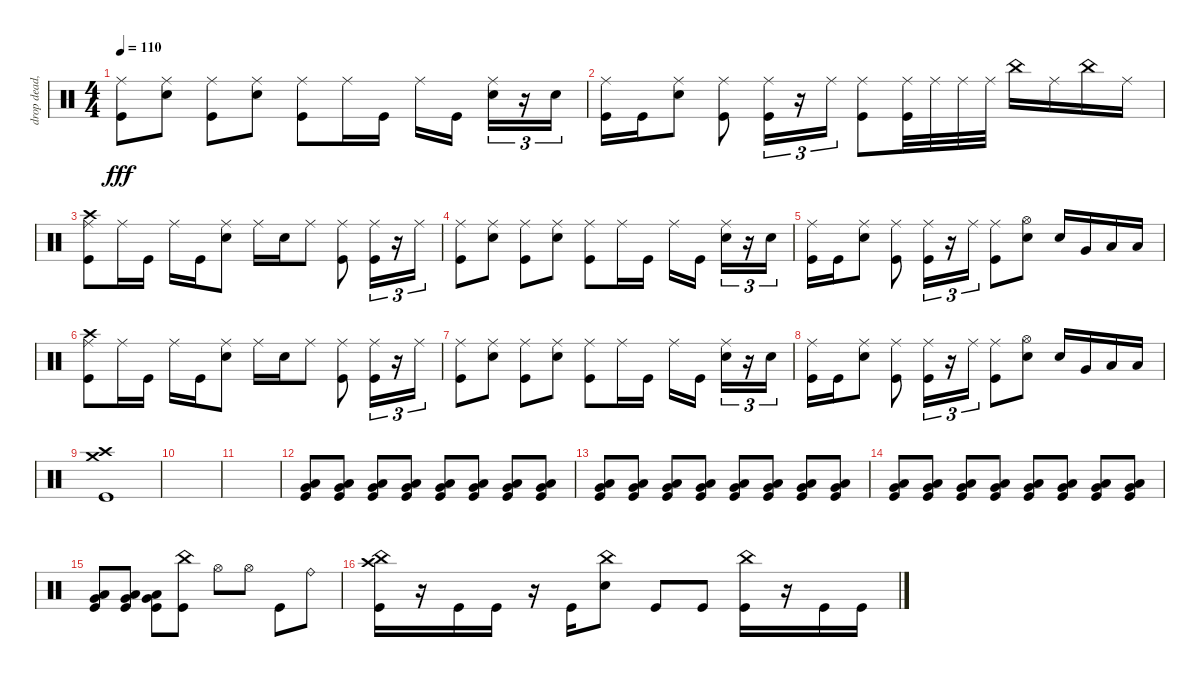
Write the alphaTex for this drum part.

\track ("drop dead, johnny" "drop dead,") {instrument percussion}
\staff {score}
\articulation defaults
\ts (4 4)
\tempo 110
\clef neutral
\ks c
("Ride (middle)" "Kick (hit)").8{dy fff} ("Ride (middle)" "Electric Snare (hit)").8 ("Ride (middle)" "Kick (hit)").8 ("Ride (middle)" "Electric Snare (hit)").8 ("Ride (middle)" "Kick (hit)").8 "Ride (middle)".16 "Kick (hit)".16 "Ride (middle)".16 "Kick (hit)".16{beam splitsecondary} ("Ride (middle)" "Electric Snare (hit)").16{tu (3 2)} r.16{tu (3 2)} "Electric Snare (hit)".16{tu (3 2)} |
("Ride (middle)" "Kick (hit)").16 "Kick (hit)".16 ("Ride (middle)" "Electric Snare (hit)").8 ("Ride (middle)" "Kick (hit)").8 ("Ride (middle)" "Kick (hit)").16{tu (3 2)} r.16{tu (3 2)} "Ride (middle)".16{tu (3 2)} ("Ride (middle)" "Kick (hit)").8 ("Ride (middle)" "Kick (hit)").32 "Ride (middle)".32 "Ride (middle)".32 "Ride (middle)".32 "China (hit)".16 "Ride (middle)".16 "China (hit)".16 "Ride (middle)".16 |
("Crash high (hit)" "Ride (middle)" "Kick (hit)").8 "Ride (middle)".16 "Kick (hit)".16 "Ride (middle)".16 "Kick (hit)".16 ("Ride (middle)" "Electric Snare (hit)").8 "Ride (middle)".16 "Electric Snare (hit)".16 "Ride (middle)".8 ("Ride (middle)" "Kick (hit)").8 ("Ride (middle)" "Kick (hit)").16{tu (3 2)} r.16{tu (3 2)} "Ride (middle)".16{tu (3 2)} |
("Ride (middle)" "Kick (hit)").8 ("Ride (middle)" "Electric Snare (hit)").8 ("Ride (middle)" "Kick (hit)").8 ("Ride (middle)" "Electric Snare (hit)").8 ("Ride (middle)" "Kick (hit)").8 "Ride (middle)".16 "Kick (hit)".16 "Ride (middle)".16 "Kick (hit)".16{beam splitsecondary} ("Ride (middle)" "Electric Snare (hit)").16{tu (3 2)} r.16{tu (3 2)} "Electric Snare (hit)".16{tu (3 2)} |
("Ride (middle)" "Kick (hit)").16 "Kick (hit)".16 ("Ride (middle)" "Electric Snare (hit)").8 ("Ride (middle)" "Kick (hit)").8 ("Ride (middle)" "Kick (hit)").16{tu (3 2)} r.16{tu (3 2)} "Ride (middle)".16{tu (3 2)} ("Ride (middle)" "Kick (hit)").8 ("Hi-Hat (open)" "Electric Snare (hit)").8 "Electric Snare (hit)".16 "Very Low Tom (hit)".16 "Low Floor Tom (hit)".16 "Low Floor Tom (hit)".16 |
("Crash high (hit)" "Ride (middle)" "Kick (hit)").8 "Ride (middle)".16 "Kick (hit)".16 "Ride (middle)".16 "Kick (hit)".16 ("Ride (middle)" "Electric Snare (hit)").8 "Ride (middle)".16 "Electric Snare (hit)".16 "Ride (middle)".8 ("Ride (middle)" "Kick (hit)").8 ("Ride (middle)" "Kick (hit)").16{tu (3 2)} r.16{tu (3 2)} "Ride (middle)".16{tu (3 2)} |
("Ride (middle)" "Kick (hit)").8 ("Ride (middle)" "Electric Snare (hit)").8 ("Ride (middle)" "Kick (hit)").8 ("Ride (middle)" "Electric Snare (hit)").8 ("Ride (middle)" "Kick (hit)").8 "Ride (middle)".16 "Kick (hit)".16 "Ride (middle)".16 "Kick (hit)".16{beam splitsecondary} ("Ride (middle)" "Electric Snare (hit)").16{tu (3 2)} r.16{tu (3 2)} "Electric Snare (hit)".16{tu (3 2)} |
("Ride (middle)" "Kick (hit)").16 "Kick (hit)".16 ("Ride (middle)" "Electric Snare (hit)").8 ("Ride (middle)" "Kick (hit)").8 ("Ride (middle)" "Kick (hit)").16{tu (3 2)} r.16{tu (3 2)} "Ride (middle)".16{tu (3 2)} ("Ride (middle)" "Kick (hit)").8 ("Hi-Hat (open)" "Electric Snare (hit)").8 "Electric Snare (hit)".16 "Very Low Tom (hit)".16 "Low Floor Tom (hit)".16 "Low Floor Tom (hit)".16 |
("Crash high (hit)" "Crash medium (hit)" "Kick (hit)").1 |
|
|
("Very Low Tom (hit)" "Low Floor Tom (hit)" "Kick (hit)").8{volume 16} ("Very Low Tom (hit)" "Low Floor Tom (hit)" "Kick (hit)").8 ("Very Low Tom (hit)" "Low Floor Tom (hit)" "Kick (hit)").8 ("Very Low Tom (hit)" "Low Floor Tom (hit)" "Kick (hit)").8 ("Very Low Tom (hit)" "Low Floor Tom (hit)" "Kick (hit)").8 ("Very Low Tom (hit)" "Low Floor Tom (hit)" "Kick (hit)").8 ("Very Low Tom (hit)" "Low Floor Tom (hit)" "Kick (hit)").8 ("Very Low Tom (hit)" "Low Floor Tom (hit)" "Kick (hit)").8 |
("Very Low Tom (hit)" "Low Floor Tom (hit)" "Kick (hit)").8 ("Very Low Tom (hit)" "Low Floor Tom (hit)" "Kick (hit)").8 ("Very Low Tom (hit)" "Low Floor Tom (hit)" "Kick (hit)").8 ("Very Low Tom (hit)" "Low Floor Tom (hit)" "Kick (hit)").8 ("Very Low Tom (hit)" "Low Floor Tom (hit)" "Kick (hit)").8 ("Very Low Tom (hit)" "Low Floor Tom (hit)" "Kick (hit)").8 ("Very Low Tom (hit)" "Low Floor Tom (hit)" "Kick (hit)").8 ("Very Low Tom (hit)" "Low Floor Tom (hit)" "Kick (hit)").8 |
("Very Low Tom (hit)" "Low Floor Tom (hit)" "Kick (hit)").8 ("Very Low Tom (hit)" "Low Floor Tom (hit)" "Kick (hit)").8 ("Very Low Tom (hit)" "Low Floor Tom (hit)" "Kick (hit)").8 ("Very Low Tom (hit)" "Low Floor Tom (hit)" "Kick (hit)").8 ("Very Low Tom (hit)" "Low Floor Tom (hit)" "Kick (hit)").8 ("Very Low Tom (hit)" "Low Floor Tom (hit)" "Kick (hit)").8 ("Very Low Tom (hit)" "Low Floor Tom (hit)" "Kick (hit)").8 ("Very Low Tom (hit)" "Low Floor Tom (hit)" "Kick (hit)").8 |
("Very Low Tom (hit)" "Low Floor Tom (hit)" "Kick (hit)").8 ("Very Low Tom (hit)" "Low Floor Tom (hit)" "Kick (hit)").8 ("Very Low Tom (hit)" "Low Floor Tom (hit)" "Kick (hit)").8 ("China (hit)" "Kick (hit)").8 "Hi-Hat (open)".8 "Hi-Hat (open)".8 "Kick (hit)".8 "Ride (bell)".8 |
("Crash high (hit)" "China (hit)" "Kick (hit)").16 r.16 "Kick (hit)".16 "Kick (hit)".16 r.16 "Kick (hit)".16 ("China (hit)" "Electric Snare (hit)").8 "Kick (hit)".8 "Kick (hit)".8 ("China (hit)" "Kick (hit)").16 r.16 "Kick (hit)".16 "Kick (hit)".16
